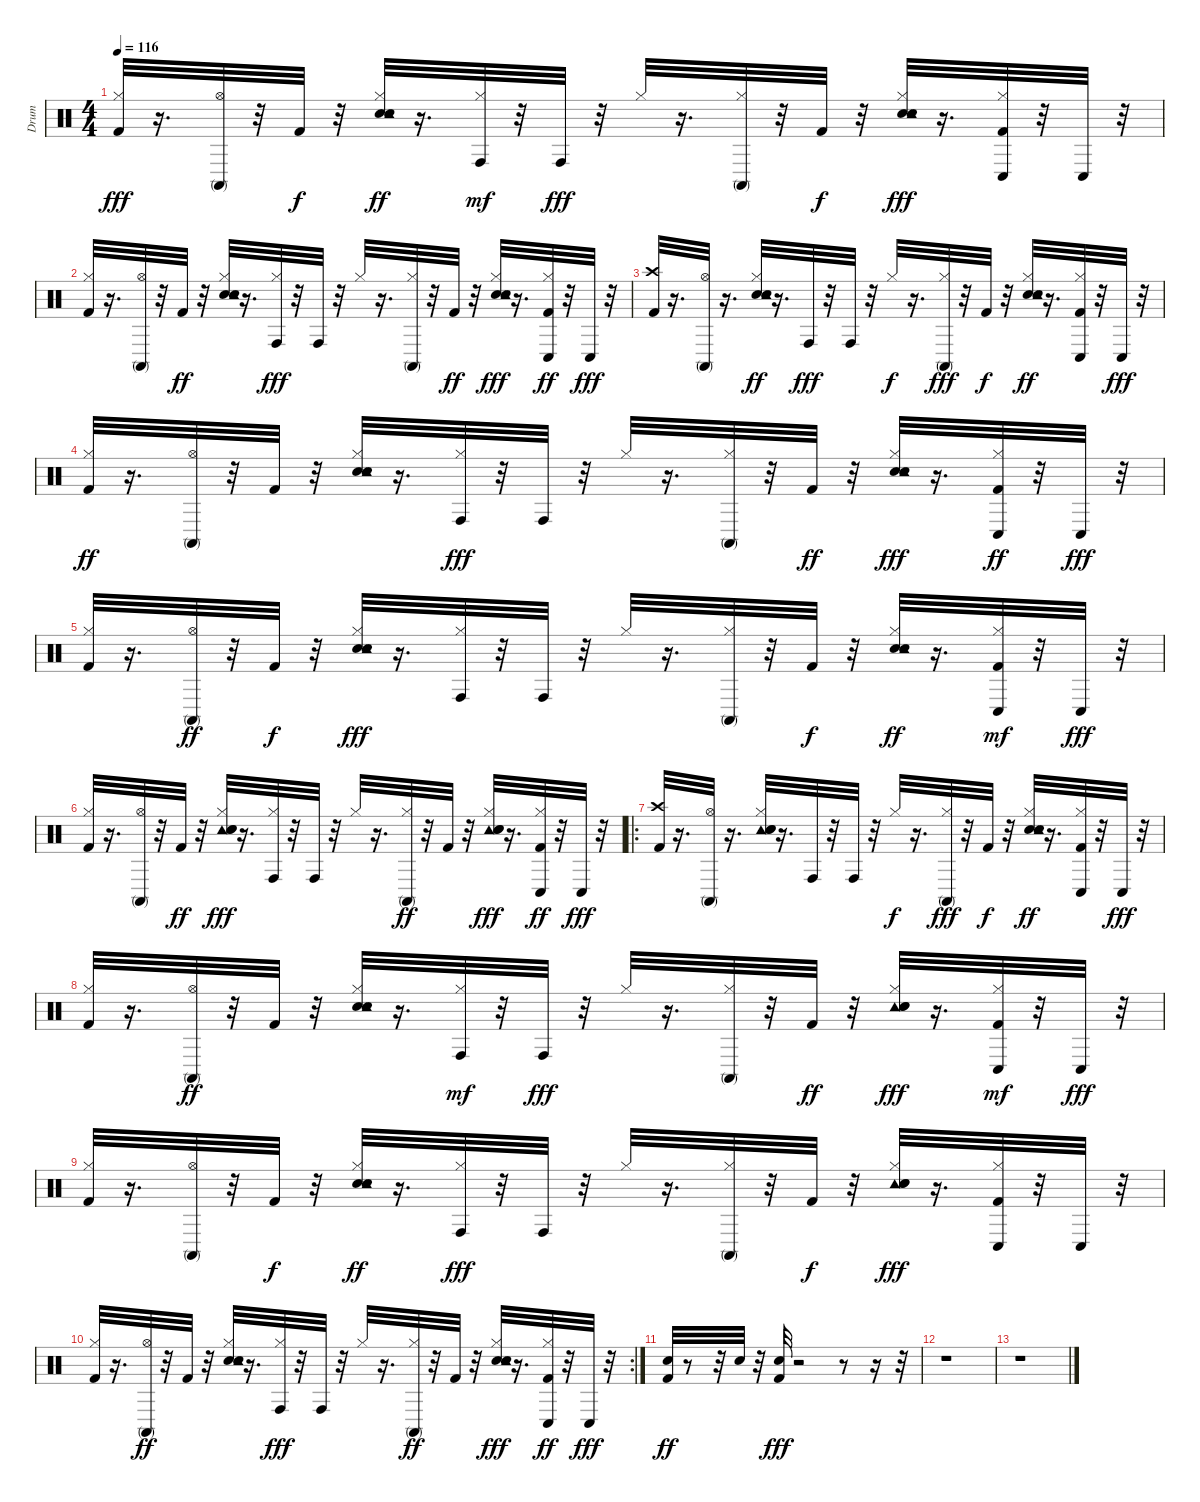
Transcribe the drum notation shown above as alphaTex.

\track ("Drum" "Drum") {instrument percussion}
\staff {score}
\articulation defaults
\ts (4 4)
\tempo 116
\clef neutral
\ks c
("Kick (hit) 2" "Hi-Hat (closed)").32{dy fff} r.16{d} ("Hi-Hat (open)" "Conga high (mute)").32 r.32 "Kick (hit) 2".32{dy f} r.32 ("Hi-Hat (closed)" "Electric Snare (hit)" "Hand Clap (hit)" "Tambourine (hit)").32{dy ff} r.16{d} ("Conga high (hit)" "Hi-Hat (closed)").32{dy mf} r.32 "Conga high (hit)".32{dy fff} r.32 "Hi-Hat (closed)".32 r.16{d} ("Conga high (mute)" "Hi-Hat (closed)").32 r.32 "Kick (hit) 2".32{dy f} r.32 ("Electric Snare (hit)" "Tambourine (hit)" "Hand Clap (hit)" "Hi-Hat (closed)").32{dy fff} r.16{d} ("Hi-Hat (closed)" "Kick (hit) 2" "Conga low (hit)").32 r.32 "Conga low (hit)".32 r.32 |
("Kick (hit) 2" "Hi-Hat (closed)").32 r.16{d} ("Hi-Hat (open)" "Conga high (mute)").32 r.32 "Kick (hit) 2".32{dy ff} r.32 ("Hand Clap (hit)" "Hi-Hat (closed)" "Electric Snare (hit)" "Tambourine (hit)").32 r.16{d} ("Hi-Hat (closed)" "Conga high (hit)").32{dy fff} r.32 "Conga high (hit)".32 r.32 "Hi-Hat (closed)".32 r.16{d} ("Hi-Hat (closed)" "Conga high (mute)").32 r.32 "Kick (hit) 2".32{dy ff} r.32 ("Electric Snare (hit)" "Hand Clap (hit)" "Hi-Hat (closed)" "Tambourine (hit)").32{dy fff} r.16{d} ("Conga low (hit)" "Kick (hit) 2" "Hi-Hat (closed)").32{dy ff} r.32 "Conga low (hit)".32{dy fff} r.32 |
("Kick (hit) 2" "Crash high (hit)").32 r.16{d} ("Hi-Hat (open)" "Conga high (mute)").32 r.16{d} ("Hi-Hat (closed)" "Electric Snare (hit)" "Hand Clap (hit)" "Tambourine (hit)").32{dy ff} r.16{d} "Conga high (hit)".32{dy fff} r.32 "Conga high (hit)".32 r.32 "Hi-Hat (closed)".32{dy f} r.16{d} ("Hi-Hat (closed)" "Conga high (mute)").32{dy fff} r.32 "Kick (hit) 2".32{dy f} r.32 ("Hi-Hat (closed)" "Hand Clap (hit)" "Electric Snare (hit)" "Tambourine (hit)").32{dy ff} r.16{d} ("Conga low (hit)" "Hi-Hat (closed)" "Kick (hit) 2").32 r.32 "Conga low (hit)".32{dy fff} r.32 |
("Kick (hit) 2" "Hi-Hat (closed)").32{dy ff} r.16{d} ("Conga high (mute)" "Hi-Hat (open)").32 r.32 "Kick (hit) 2".32 r.32 ("Hand Clap (hit)" "Electric Snare (hit)" "Tambourine (hit)" "Hi-Hat (closed)").32 r.16{d} ("Hi-Hat (closed)" "Conga high (hit)").32{dy fff} r.32 "Conga high (hit)".32 r.32 "Hi-Hat (closed)".32 r.16{d} ("Hi-Hat (closed)" "Conga high (mute)").32 r.32 "Kick (hit) 2".32{dy ff} r.32 ("Hand Clap (hit)" "Electric Snare (hit)" "Tambourine (hit)" "Hi-Hat (closed)").32{dy fff} r.16{d} ("Hi-Hat (closed)" "Conga low (hit)" "Kick (hit) 2").32{dy ff} r.32 "Conga low (hit)".32{dy fff} r.32 |
("Hi-Hat (closed)" "Kick (hit) 2").32 r.16{d} ("Conga high (mute)" "Hi-Hat (open)").32{dy ff} r.32 "Kick (hit) 2".32{dy f} r.32 ("Hi-Hat (closed)" "Hand Clap (hit)" "Tambourine (hit)" "Electric Snare (hit)").32{dy fff} r.16{d} ("Hi-Hat (closed)" "Conga high (hit)").32 r.32 "Conga high (hit)".32 r.32 "Hi-Hat (closed)".32 r.16{d} ("Hi-Hat (closed)" "Conga high (mute)").32 r.32 "Kick (hit) 2".32{dy f} r.32 ("Electric Snare (hit)" "Hi-Hat (closed)" "Hand Clap (hit)" "Tambourine (hit)").32{dy ff} r.16{d} ("Kick (hit) 2" "Conga low (hit)" "Hi-Hat (closed)").32{dy mf} r.32 "Conga low (hit)".32{dy fff} r.32 |
("Kick (hit) 2" "Hi-Hat (closed)").32 r.16{d} ("Hi-Hat (open)" "Conga high (mute)").32 r.32 "Kick (hit) 2".32{dy ff} r.32 ("Tambourine (hit)" "Hand Clap (hit)" "Hi-Hat (closed)" "Electric Snare (hit)").32{dy fff} r.16{d} ("Conga high (hit)" "Hi-Hat (closed)").32 r.32 "Conga high (hit)".32 r.32 "Hi-Hat (closed)".32 r.16{d} ("Conga high (mute)" "Hi-Hat (closed)").32{dy ff} r.32 "Kick (hit) 2".32 r.32 ("Hi-Hat (closed)" "Tambourine (hit)" "Electric Snare (hit)" "Hand Clap (hit)").32{dy fff} r.16{d} ("Conga low (hit)" "Kick (hit) 2" "Hi-Hat (closed)").32{dy ff} r.32 "Conga low (hit)".32{dy fff} r.32 |
\ro
("Crash high (hit)" "Kick (hit) 2").32 r.16{d} ("Hi-Hat (open)" "Conga high (mute)").32 r.16{d} ("Tambourine (hit)" "Electric Snare (hit)" "Hi-Hat (closed)" "Hand Clap (hit)").32 r.16{d} "Conga high (hit)".32 r.32 "Conga high (hit)".32 r.32 "Hi-Hat (closed)".32{dy f} r.16{d} ("Conga high (mute)" "Hi-Hat (closed)").32{dy fff} r.32 "Kick (hit) 2".32{dy f} r.32 ("Hand Clap (hit)" "Hi-Hat (closed)" "Electric Snare (hit)" "Tambourine (hit)").32{dy ff} r.16{d} ("Hi-Hat (closed)" "Conga low (hit)" "Kick (hit) 2").32 r.32 "Conga low (hit)".32{dy fff} r.32 |
("Hi-Hat (closed)" "Kick (hit) 2").32 r.16{d} ("Conga high (mute)" "Hi-Hat (open)").32{dy ff} r.32 "Kick (hit) 2".32 r.32 ("Hand Clap (hit)" "Electric Snare (hit)" "Hi-Hat (closed)" "Tambourine (hit)").32 r.16{d} ("Conga high (hit)" "Hi-Hat (closed)").32{dy mf} r.32 "Conga high (hit)".32{dy fff} r.32 "Hi-Hat (closed)".32 r.16{d} ("Conga high (mute)" "Hi-Hat (closed)").32 r.32 "Kick (hit) 2".32{dy ff} r.32 ("Hi-Hat (closed)" "Tambourine (hit)" "Hand Clap (hit)" "Electric Snare (hit)").32{dy fff} r.16{d} ("Conga low (hit)" "Kick (hit) 2" "Hi-Hat (closed)").32{dy mf} r.32 "Conga low (hit)".32{dy fff} r.32 |
("Hi-Hat (closed)" "Kick (hit) 2").32 r.16{d} ("Hi-Hat (open)" "Conga high (mute)").32 r.32 "Kick (hit) 2".32{dy f} r.32 ("Hand Clap (hit)" "Tambourine (hit)" "Electric Snare (hit)" "Hi-Hat (closed)").32{dy ff} r.16{d} ("Hi-Hat (closed)" "Conga high (hit)").32{dy fff} r.32 "Conga high (hit)".32 r.32 "Hi-Hat (closed)".32 r.16{d} ("Hi-Hat (closed)" "Conga high (mute)").32 r.32 "Kick (hit) 2".32{dy f} r.32 ("Tambourine (hit)" "Hand Clap (hit)" "Hi-Hat (closed)" "Electric Snare (hit)").32{dy fff} r.16{d} ("Hi-Hat (closed)" "Conga low (hit)" "Kick (hit) 2").32 r.32 "Conga low (hit)".32 r.32 |
\rc 2
("Kick (hit) 2" "Hi-Hat (closed)").32 r.16{d} ("Conga high (mute)" "Hi-Hat (open)").32{dy ff} r.32 "Kick (hit) 2".32 r.32 ("Hand Clap (hit)" "Electric Snare (hit)" "Hi-Hat (closed)" "Tambourine (hit)").32 r.16{d} ("Conga high (hit)" "Hi-Hat (closed)").32{dy fff} r.32 "Conga high (hit)".32 r.32 "Hi-Hat (closed)".32 r.16{d} ("Conga high (mute)" "Hi-Hat (closed)").32{dy ff} r.32 "Kick (hit) 2".32 r.32 ("Electric Snare (hit)" "Hi-Hat (closed)" "Hand Clap (hit)" "Tambourine (hit)").32{dy fff} r.16{d} ("Conga low (hit)" "Kick (hit) 2" "Hi-Hat (closed)").32{dy ff} r.32 "Conga low (hit)".32{dy fff} r.32 |
("Kick (hit) 2" "Electric Snare (hit)").32{dy ff} r.8 r.32 "Electric Snare (hit)".32 r.32 ("Electric Snare (hit)" "Kick (hit) 2").32{dy fff} r.2 r.8 r.16 r.32 |
r.1 |
r.1
